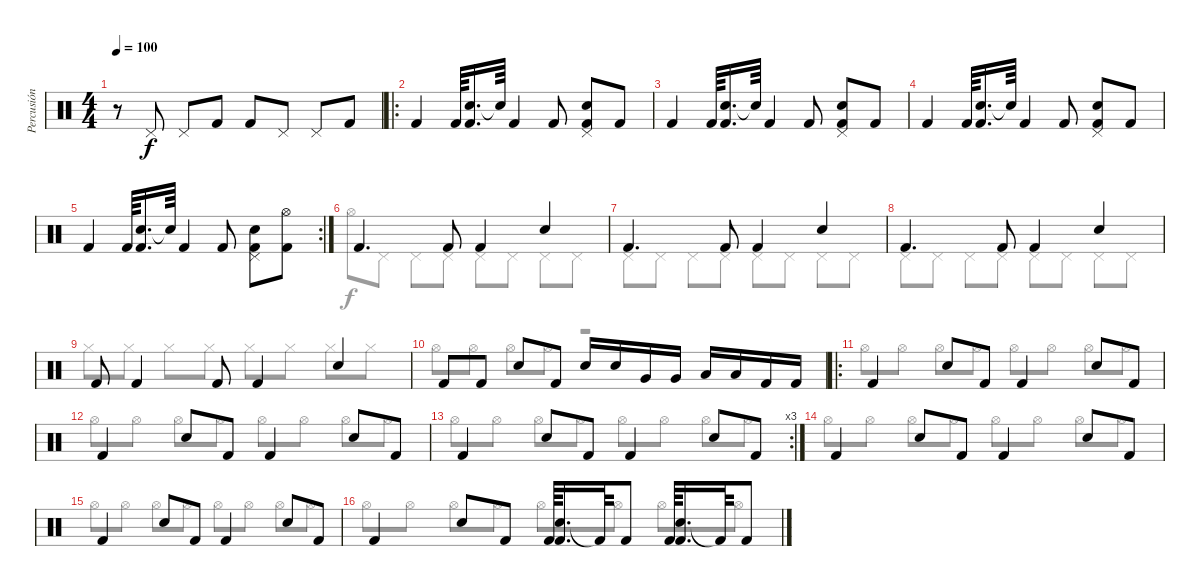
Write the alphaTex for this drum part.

\track ("Percusión" "Percusión") {instrument percussion}
\staff {score}
\articulation defaults
\voice
\ts (4 4)
\tempo 100
\clef neutral
\ks c
r.8{dy f} "Pedal Hi-Hat (hit)".8 "Pedal Hi-Hat (hit)".8 "Kick (hit) 2".8 "Kick (hit) 2".8 "Pedal Hi-Hat (hit)".8 "Pedal Hi-Hat (hit)".8 "Kick (hit) 2".8 |
\ro "Kick (hit) 2".4 "Kick (hit) 2".64
("Electric Snare (hit)" "Kick (hit) 2").16{d} "Snare (hit)"{t}.64 "Kick (hit) 2".4 "Kick (hit) 2".8 ("Pedal Hi-Hat (hit)" "Electric Snare (hit)" "Kick (hit) 2").8 "Kick (hit) 2".8 |
"Kick (hit) 2".4 "Kick (hit) 2".64 ("Electric Snare (hit)" "Kick (hit) 2").16{d} "Snare (hit)"{t}.64 "Kick (hit) 2".4 "Kick (hit) 2".8 ("Pedal Hi-Hat (hit)" "Electric Snare (hit)" "Kick (hit) 2").8 "Kick (hit) 2".8 |
"Kick (hit) 2".4 "Kick (hit) 2".64 ("Electric Snare (hit)" "Kick (hit) 2").16{d} "Snare (hit)"{t}.64 "Kick (hit) 2".4 "Kick (hit) 2".8 ("Pedal Hi-Hat (hit)" "Electric Snare (hit)" "Kick (hit) 2").8 "Kick (hit) 2".8 |
\rc 2 "Kick (hit) 2".4 "Kick (hit) 2".64
("Electric Snare (hit)" "Kick (hit) 2").16{d} "Snare (hit)"{t}.64 "Kick (hit) 2".4 "Kick (hit) 2".8 ("Pedal Hi-Hat (hit)" "Electric Snare (hit)" "Kick (hit) 2").8 ("Hi-Hat (open)" "Kick (hit) 2").8 |
"Kick (hit) 2".4{d} "Kick (hit) 2".8 "Kick (hit) 2".4 "Electric Snare (hit)".4 |
"Kick (hit) 2".4{d} "Kick (hit) 2".8 "Kick (hit) 2".4 "Electric Snare (hit)".4 |
"Kick (hit) 2".4{d} "Kick (hit) 2".8 "Kick (hit) 2".4 "Electric Snare (hit)".4 |
"Kick (hit) 2".8 "Kick (hit) 2".4 "Kick (hit) 2".8 "Kick (hit) 2".4 "Electric Snare (hit)".4 |
"Kick (hit) 2".8 "Kick (hit) 2".8 "Electric Snare (hit)".8 "Kick (hit) 2".8 "Electric Snare (hit)".16 "Electric Snare (hit)".16 "Very Low Tom (hit)".16 "Very Low Tom (hit)".16 "Low Floor Tom (hit)".16 "Low Floor Tom (hit)".16 "Kick (hit) 2".16 "Kick (hit) 2".16 |
\ro "Kick (hit) 2".4 "Electric Snare (hit)".8 "Kick (hit) 2".8 "Kick (hit) 2".4 "Electric Snare (hit)".8 "Kick (hit) 2".8
|
"Kick (hit) 2".4 "Electric Snare (hit)".8 "Kick (hit) 2".8 "Kick (hit) 2".4 "Electric Snare (hit)".8 "Kick (hit) 2".8 |
\rc 3 "Kick (hit) 2".4 "Electric Snare (hit)".8 "Kick (hit) 2".8 "Kick (hit) 2".4 "Electric Snare (hit)".8 "Kick (hit) 2".8
|
"Kick (hit) 2".4 "Electric Snare (hit)".8 "Kick (hit) 2".8 "Kick (hit) 2".4 "Electric Snare (hit)".8 "Kick (hit) 2".8 |
"Kick (hit) 2".4 "Electric Snare (hit)".8 "Kick (hit) 2".8 "Kick (hit) 2".4 "Electric Snare (hit)".8 "Kick (hit) 2".8 |
"Kick (hit) 2".4 "Electric Snare (hit)".8 "Kick (hit) 2".8 "Kick (hit) 2".64 ("Electric Snare (hit)" "Kick (hit) 2").16{d} "Kick (hit) 2"{t}.64 "Kick (hit) 2".8 "Kick (hit) 2".64 ("Electric Snare (hit)" "Kick (hit) 2").16{d} "Kick (hit) 2"{t}.64 "Kick (hit) 2".8
\voice
\clef neutral
\ottava regular
\simile none
\ks c
|
|
|
|
|
"Hi-Hat (open)".8 "Pedal Hi-Hat (hit)".8 "Pedal Hi-Hat (hit)".8 "Pedal Hi-Hat (hit)".8 "Pedal Hi-Hat (hit)".8 "Pedal Hi-Hat (hit)".8 "Pedal Hi-Hat (hit)".8 "Pedal Hi-Hat (hit)".8 |
"Pedal Hi-Hat (hit)".8 "Pedal Hi-Hat (hit)".8 "Pedal Hi-Hat (hit)".8 "Pedal Hi-Hat (hit)".8 "Pedal Hi-Hat (hit)".8 "Pedal Hi-Hat (hit)".8 "Pedal Hi-Hat (hit)".8 "Pedal Hi-Hat (hit)".8 |
"Pedal Hi-Hat (hit)".8 "Pedal Hi-Hat (hit)".8 "Pedal Hi-Hat (hit)".8 "Pedal Hi-Hat (hit)".8 "Pedal Hi-Hat (hit)".8 "Pedal Hi-Hat (hit)".8 "Pedal Hi-Hat (hit)".8 "Pedal Hi-Hat (hit)".8 |
"Hi-Hat (closed)".8 "Hi-Hat (closed)".8 "Hi-Hat (closed)".8 "Hi-Hat (closed)".8 "Hi-Hat (closed)".8 "Hi-Hat (closed)".8 "Hi-Hat (closed)".8 "Hi-Hat (closed)".8 |
"Hi-Hat (open)".8 "Hi-Hat (open)".8 "Hi-Hat (open)".8 "Hi-Hat (open)".8 r.2 |
"Hi-Hat (open)".8 "Hi-Hat (open)".8 "Hi-Hat (open)".8 "Hi-Hat (open)".8 "Hi-Hat (open)".8 "Hi-Hat (open)".8 "Hi-Hat (open)".8 "Hi-Hat (open)".8 |
"Hi-Hat (open)".8 "Hi-Hat (open)".8 "Hi-Hat (open)".8 "Hi-Hat (open)".8 "Hi-Hat (open)".8 "Hi-Hat (open)".8 "Hi-Hat (open)".8 "Hi-Hat (open)".8 |
"Hi-Hat (open)".8 "Hi-Hat (open)".8 "Hi-Hat (open)".8 "Hi-Hat (open)".8 "Hi-Hat (open)".8 "Hi-Hat (open)".8 "Hi-Hat (open)".8 "Hi-Hat (open)".8 |
"Hi-Hat (open)".8 "Hi-Hat (open)".8 "Hi-Hat (open)".8 "Hi-Hat (open)".8 "Hi-Hat (open)".8 "Hi-Hat (open)".8 "Hi-Hat (open)".8 "Hi-Hat (open)".8 |
"Hi-Hat (open)".8 "Hi-Hat (open)".8 "Hi-Hat (open)".8 "Hi-Hat (open)".8 "Hi-Hat (open)".8 "Hi-Hat (open)".8 "Hi-Hat (open)".8 "Hi-Hat (open)".8 |
"Hi-Hat (open)".8 "Hi-Hat (open)".8 "Hi-Hat (open)".8 "Hi-Hat (open)".8 "Hi-Hat (open)".8 "Hi-Hat (open)".8 "Hi-Hat (open)".8 "Hi-Hat (open)".8
